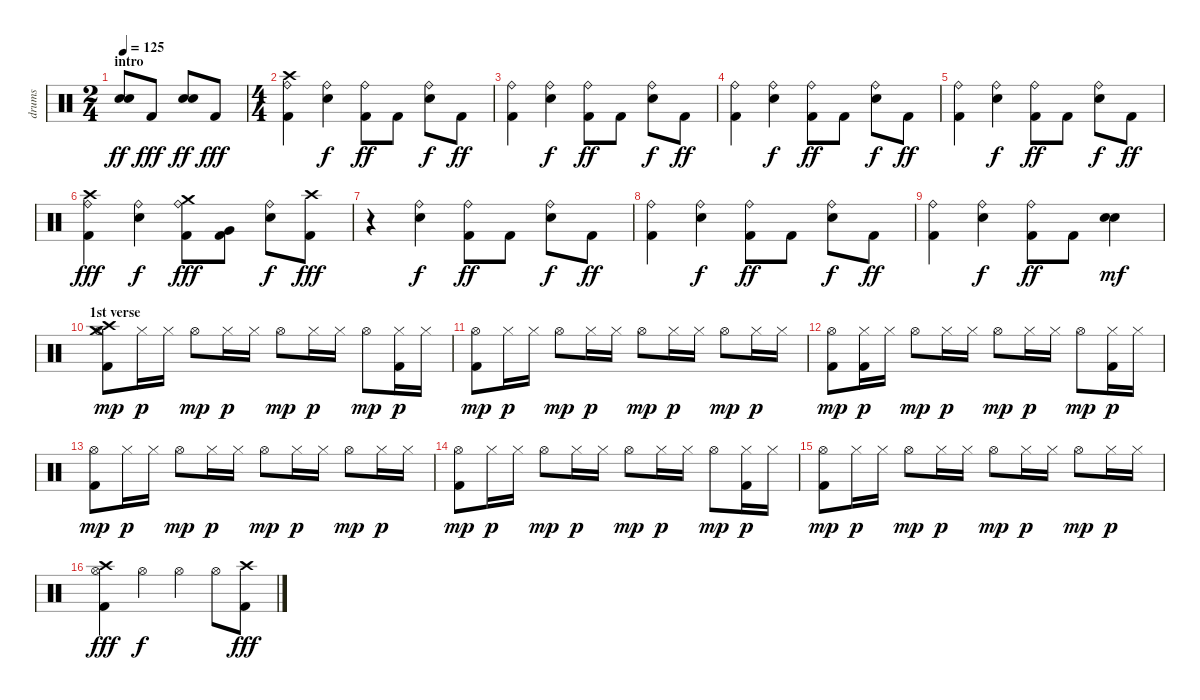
\track ("drums" "drums") {instrument percussion}
\staff {score}
\articulation defaults
\ts (2 4)
\section ("" "intro")
\tempo 125
\clef neutral
\ks c
("Electric Snare (hit)" "Snare (hit) 2").8{dy ff} "Kick (hit) 2".8{dy fff} ("Electric Snare (hit)" "Snare (hit) 2").8{dy ff} "Kick (hit) 2".8{dy fff} |
\ts (4 4)
("Kick (hit) 2" "Crash high (hit)" "Ride (bell)").4 ("Ride (bell)" "Snare (hit) 2").4{dy f} ("Kick (hit) 2" "Ride (bell)").8{dy ff} "Kick (hit) 2".8 ("Ride (bell)" "Snare (hit) 2").8{dy f} "Kick (hit) 2".8{dy ff} |
("Kick (hit) 2" "Ride (bell)").4 ("Ride (bell)" "Snare (hit) 2").4{dy f} ("Kick (hit) 2" "Ride (bell)").8{dy ff} "Kick (hit) 2".8 ("Ride (bell)" "Snare (hit) 2").8{dy f} "Kick (hit) 2".8{dy ff} |
("Kick (hit) 2" "Ride (bell)").4 ("Ride (bell)" "Snare (hit) 2").4{dy f} ("Kick (hit) 2" "Ride (bell)").8{dy ff} "Kick (hit) 2".8 ("Ride (bell)" "Snare (hit) 2").8{dy f} "Kick (hit) 2".8{dy ff} |
("Kick (hit) 2" "Ride (bell)").4 ("Ride (bell)" "Snare (hit) 2").4{dy f} ("Kick (hit) 2" "Ride (bell)").8{dy ff} "Kick (hit) 2".8 ("Ride (bell)" "Snare (hit) 2").8{dy f} "Kick (hit) 2".8{dy ff} |
("Kick (hit) 2" "Crash high (hit)" "Ride (bell)").4{dy fff} ("Ride (bell)" "Snare (hit) 2").4{dy f} ("Kick (hit) 2" "Crash medium (hit)" "Ride (bell)").8{dy fff} ("Kick (hit) 2" "Very Low Tom (hit)").8 ("Ride (bell)" "Snare (hit) 2").8{dy f} ("Kick (hit) 2" "Crash high (hit)").8{dy fff} |
r.4 ("Ride (bell)" "Snare (hit) 2").4{dy f} ("Kick (hit) 2" "Ride (bell)").8{dy ff} "Kick (hit) 2".8 ("Ride (bell)" "Snare (hit) 2").8{dy f} "Kick (hit) 2".8{dy ff} |
("Kick (hit) 2" "Ride (bell)").4 ("Ride (bell)" "Snare (hit) 2").4{dy f} ("Kick (hit) 2" "Ride (bell)").8{dy ff} "Kick (hit) 2".8 ("Ride (bell)" "Snare (hit) 2").8{dy f} "Kick (hit) 2".8{dy ff} |
("Kick (hit) 2" "Ride (bell)").4 ("Ride (bell)" "Snare (hit) 2").4{dy f} ("Kick (hit) 2" "Ride (bell)").8{dy ff} "Kick (hit) 2".8 ("Electric Snare (hit)" "Snare (hit) 2").4{dy mf} |
\section ("" "1st verse")
("Kick (hit) 2" "Crash high (hit)" "Crash medium (hit)" "Hi-Hat (open)").8{dy mp} "Hi-Hat (closed)".16{dy p} "Hi-Hat (closed)".16 "Hi-Hat (open)".8{dy mp} "Hi-Hat (closed)".16{dy p} "Hi-Hat (closed)".16 "Hi-Hat (open)".8{dy mp} "Hi-Hat (closed)".16{dy p} "Hi-Hat (closed)".16 "Hi-Hat (open)".8{dy mp} ("Kick (hit) 2" "Hi-Hat (closed)").16{dy p} "Hi-Hat (closed)".16 |
("Kick (hit) 2" "Hi-Hat (open)").8{dy mp} "Hi-Hat (closed)".16{dy p} "Hi-Hat (closed)".16 "Hi-Hat (open)".8{dy mp} "Hi-Hat (closed)".16{dy p} "Hi-Hat (closed)".16 "Hi-Hat (open)".8{dy mp} "Hi-Hat (closed)".16{dy p} "Hi-Hat (closed)".16 "Hi-Hat (open)".8{dy mp} "Hi-Hat (closed)".16{dy p} "Hi-Hat (closed)".16 |
("Kick (hit) 2" "Hi-Hat (open)").8{dy mp} ("Kick (hit) 2" "Hi-Hat (closed)").16{dy p} "Hi-Hat (closed)".16 "Hi-Hat (open)".8{dy mp} "Hi-Hat (closed)".16{dy p} "Hi-Hat (closed)".16 "Hi-Hat (open)".8{dy mp} "Hi-Hat (closed)".16{dy p} "Hi-Hat (closed)".16 "Hi-Hat (open)".8{dy mp} ("Kick (hit) 2" "Hi-Hat (closed)").16{dy p} "Hi-Hat (closed)".16 |
("Kick (hit) 2" "Hi-Hat (open)").8{dy mp} "Hi-Hat (closed)".16{dy p} "Hi-Hat (closed)".16 "Hi-Hat (open)".8{dy mp} "Hi-Hat (closed)".16{dy p} "Hi-Hat (closed)".16 "Hi-Hat (open)".8{dy mp} "Hi-Hat (closed)".16{dy p} "Hi-Hat (closed)".16 "Hi-Hat (open)".8{dy mp} "Hi-Hat (closed)".16{dy p} "Hi-Hat (closed)".16 |
("Kick (hit) 2" "Hi-Hat (open)").8{dy mp} "Hi-Hat (closed)".16{dy p} "Hi-Hat (closed)".16 "Hi-Hat (open)".8{dy mp} "Hi-Hat (closed)".16{dy p} "Hi-Hat (closed)".16 "Hi-Hat (open)".8{dy mp} "Hi-Hat (closed)".16{dy p} "Hi-Hat (closed)".16 "Hi-Hat (open)".8{dy mp} ("Kick (hit) 2" "Hi-Hat (closed)").16{dy p} "Hi-Hat (closed)".16 |
("Kick (hit) 2" "Hi-Hat (open)").8{dy mp} "Hi-Hat (closed)".16{dy p} "Hi-Hat (closed)".16 "Hi-Hat (open)".8{dy mp} "Hi-Hat (closed)".16{dy p} "Hi-Hat (closed)".16 "Hi-Hat (open)".8{dy mp} "Hi-Hat (closed)".16{dy p} "Hi-Hat (closed)".16 "Hi-Hat (open)".8{dy mp} "Hi-Hat (closed)".16{dy p} "Hi-Hat (closed)".16 |
("Kick (hit) 2" "Crash high (hit)" "Hi-Hat (open)").4{dy fff} "Hi-Hat (open)".4{dy f} "Hi-Hat (open)".4 "Hi-Hat (open)".8 ("Kick (hit) 2" "Crash high (hit)").8{dy fff}
